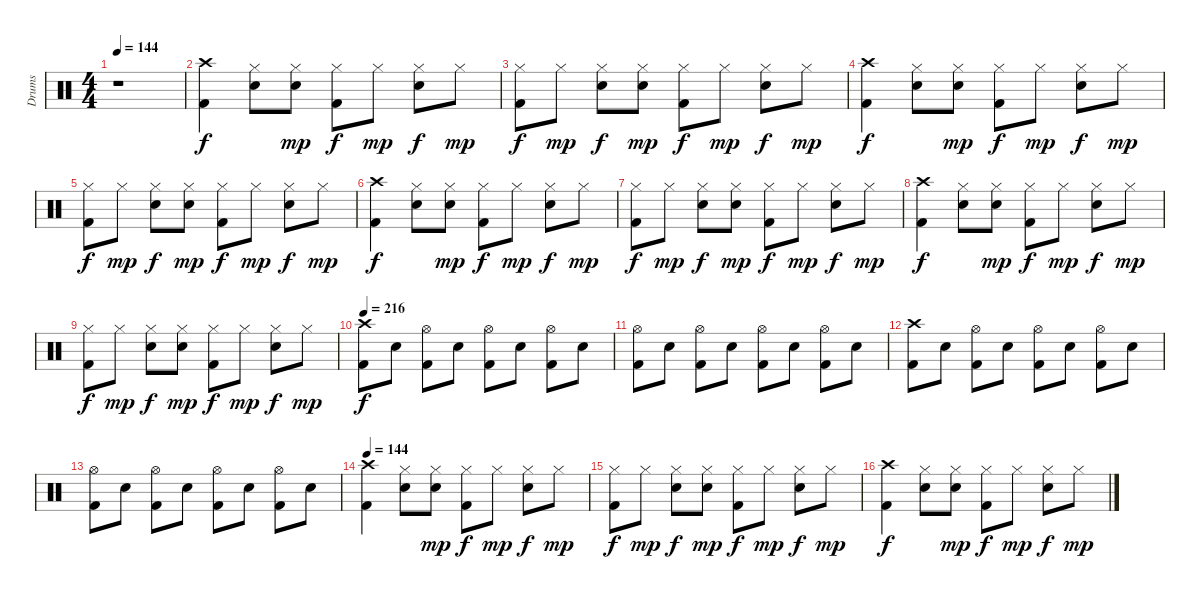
\track ("Drums" "Drums") {instrument percussion}
\staff {score}
\articulation defaults
\ts (4 4)
\tempo 144
\clef neutral
\ks c
r.1{dy f} |
("Crash high (hit)" "Kick (hit) 2").4 ("Hi-Hat (closed)" "Electric Snare (hit)").8 ("Hi-Hat (closed)" "Electric Snare (hit)").8{dy mp} ("Hi-Hat (closed)" "Kick (hit) 2").8{dy f} "Hi-Hat (closed)".8{dy mp} ("Hi-Hat (closed)" "Electric Snare (hit)").8{dy f} "Hi-Hat (closed)".8{dy mp} |
("Hi-Hat (closed)" "Kick (hit) 2").8{dy f} "Hi-Hat (closed)".8{dy mp} ("Hi-Hat (closed)" "Electric Snare (hit)").8{dy f} ("Hi-Hat (closed)" "Electric Snare (hit)").8{dy mp} ("Hi-Hat (closed)" "Kick (hit) 2").8{dy f} "Hi-Hat (closed)".8{dy mp} ("Hi-Hat (closed)" "Electric Snare (hit)").8{dy f} "Hi-Hat (closed)".8{dy mp} |
("Crash high (hit)" "Kick (hit) 2").4{dy f} ("Hi-Hat (closed)" "Electric Snare (hit)").8 ("Hi-Hat (closed)" "Electric Snare (hit)").8{dy mp} ("Hi-Hat (closed)" "Kick (hit) 2").8{dy f} "Hi-Hat (closed)".8{dy mp} ("Hi-Hat (closed)" "Electric Snare (hit)").8{dy f} "Hi-Hat (closed)".8{dy mp} |
("Hi-Hat (closed)" "Kick (hit) 2").8{dy f} "Hi-Hat (closed)".8{dy mp} ("Hi-Hat (closed)" "Electric Snare (hit)").8{dy f} ("Hi-Hat (closed)" "Electric Snare (hit)").8{dy mp} ("Hi-Hat (closed)" "Kick (hit) 2").8{dy f} "Hi-Hat (closed)".8{dy mp} ("Hi-Hat (closed)" "Electric Snare (hit)").8{dy f} "Hi-Hat (closed)".8{dy mp} |
("Crash high (hit)" "Kick (hit) 2").4{dy f} ("Hi-Hat (closed)" "Electric Snare (hit)").8 ("Hi-Hat (closed)" "Electric Snare (hit)").8{dy mp} ("Hi-Hat (closed)" "Kick (hit) 2").8{dy f} "Hi-Hat (closed)".8{dy mp} ("Hi-Hat (closed)" "Electric Snare (hit)").8{dy f} "Hi-Hat (closed)".8{dy mp} |
("Hi-Hat (closed)" "Kick (hit) 2").8{dy f} "Hi-Hat (closed)".8{dy mp} ("Hi-Hat (closed)" "Electric Snare (hit)").8{dy f} ("Hi-Hat (closed)" "Electric Snare (hit)").8{dy mp} ("Hi-Hat (closed)" "Kick (hit) 2").8{dy f} "Hi-Hat (closed)".8{dy mp} ("Hi-Hat (closed)" "Electric Snare (hit)").8{dy f} "Hi-Hat (closed)".8{dy mp} |
("Crash high (hit)" "Kick (hit) 2").4{dy f} ("Hi-Hat (closed)" "Electric Snare (hit)").8 ("Hi-Hat (closed)" "Electric Snare (hit)").8{dy mp} ("Hi-Hat (closed)" "Kick (hit) 2").8{dy f} "Hi-Hat (closed)".8{dy mp} ("Hi-Hat (closed)" "Electric Snare (hit)").8{dy f} "Hi-Hat (closed)".8{dy mp} |
("Hi-Hat (closed)" "Kick (hit) 2").8{dy f} "Hi-Hat (closed)".8{dy mp} ("Hi-Hat (closed)" "Electric Snare (hit)").8{dy f} ("Hi-Hat (closed)" "Electric Snare (hit)").8{dy mp} ("Hi-Hat (closed)" "Kick (hit) 2").8{dy f} "Hi-Hat (closed)".8{dy mp} ("Hi-Hat (closed)" "Electric Snare (hit)").8{dy f} "Hi-Hat (closed)".8{dy mp} |
\tempo 216
("Crash high (hit)" "Kick (hit) 2").8{dy f} "Electric Snare (hit)".8 ("Hi-Hat (open)" "Kick (hit) 2").8 "Electric Snare (hit)".8 ("Hi-Hat (open)" "Kick (hit) 2").8 "Electric Snare (hit)".8 ("Hi-Hat (open)" "Kick (hit) 2").8 "Electric Snare (hit)".8 |
("Hi-Hat (open)" "Kick (hit) 2").8 "Electric Snare (hit)".8 ("Hi-Hat (open)" "Kick (hit) 2").8 "Electric Snare (hit)".8 ("Hi-Hat (open)" "Kick (hit) 2").8 "Electric Snare (hit)".8 ("Hi-Hat (open)" "Kick (hit) 2").8 "Electric Snare (hit)".8 |
("Crash high (hit)" "Kick (hit) 2").8 "Electric Snare (hit)".8 ("Hi-Hat (open)" "Kick (hit) 2").8 "Electric Snare (hit)".8 ("Hi-Hat (open)" "Kick (hit) 2").8 "Electric Snare (hit)".8 ("Hi-Hat (open)" "Kick (hit) 2").8 "Electric Snare (hit)".8 |
("Hi-Hat (open)" "Kick (hit) 2").8 "Electric Snare (hit)".8 ("Hi-Hat (open)" "Kick (hit) 2").8 "Electric Snare (hit)".8 ("Hi-Hat (open)" "Kick (hit) 2").8 "Electric Snare (hit)".8 ("Hi-Hat (open)" "Kick (hit) 2").8 "Electric Snare (hit)".8 |
\tempo 144
("Crash high (hit)" "Kick (hit) 2").4 ("Hi-Hat (closed)" "Electric Snare (hit)").8 ("Hi-Hat (closed)" "Electric Snare (hit)").8{dy mp} ("Hi-Hat (closed)" "Kick (hit) 2").8{dy f} "Hi-Hat (closed)".8{dy mp} ("Hi-Hat (closed)" "Electric Snare (hit)").8{dy f} "Hi-Hat (closed)".8{dy mp} |
("Hi-Hat (closed)" "Kick (hit) 2").8{dy f} "Hi-Hat (closed)".8{dy mp} ("Hi-Hat (closed)" "Electric Snare (hit)").8{dy f} ("Hi-Hat (closed)" "Electric Snare (hit)").8{dy mp} ("Hi-Hat (closed)" "Kick (hit) 2").8{dy f} "Hi-Hat (closed)".8{dy mp} ("Hi-Hat (closed)" "Electric Snare (hit)").8{dy f} "Hi-Hat (closed)".8{dy mp} |
("Crash high (hit)" "Kick (hit) 2").4{dy f} ("Hi-Hat (closed)" "Electric Snare (hit)").8 ("Hi-Hat (closed)" "Electric Snare (hit)").8{dy mp} ("Hi-Hat (closed)" "Kick (hit) 2").8{dy f} "Hi-Hat (closed)".8{dy mp} ("Hi-Hat (closed)" "Electric Snare (hit)").8{dy f} "Hi-Hat (closed)".8{dy mp}
